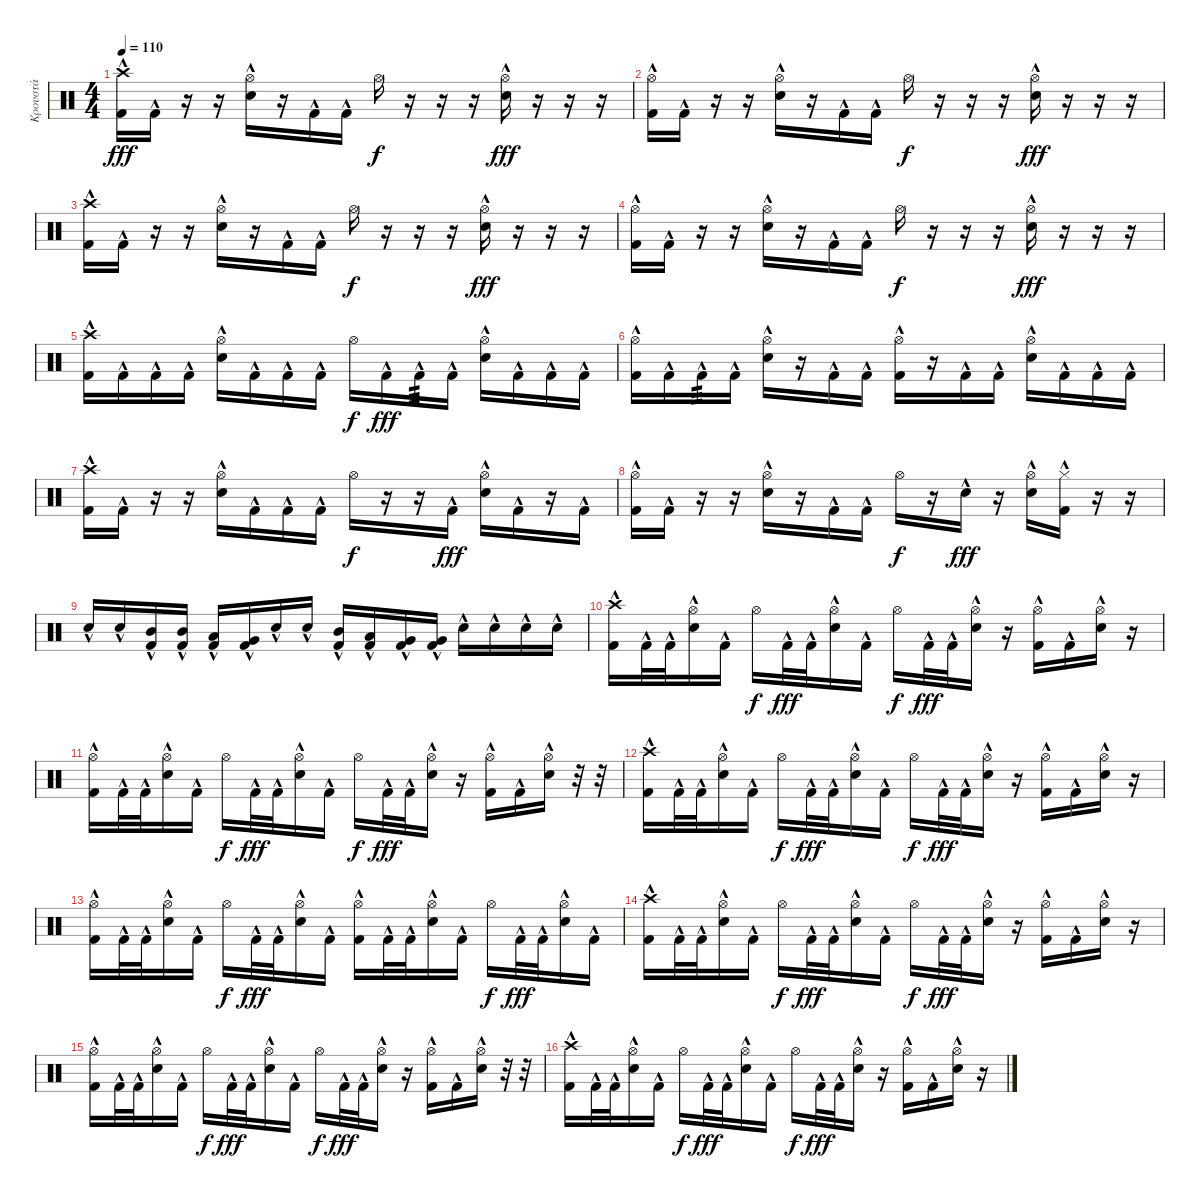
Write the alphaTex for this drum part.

\track ("Κρουστά" "Κρουστά") {instrument percussion}
\staff {score}
\articulation defaults
\ts (4 4)
\tempo 110
\clef neutral
\ks c
("Crash high (hit)" "Kick (hit) 2"{hac}).16{dy fff} "Kick (hit) 2"{hac}.16 r.16 r.16 ("Hi-Hat (open)" "Electric Snare (hit)"{hac}).16 r.16 "Kick (hit) 2"{hac}.16 "Kick (hit) 2"{hac}.16 "Hi-Hat (open)".16{dy f} r.16 r.16 r.16 ("Hi-Hat (open)" "Electric Snare (hit)"{hac}).16{dy fff} r.16 r.16 r.16 |
("Hi-Hat (open)" "Kick (hit) 2"{hac}).16 "Kick (hit) 2"{hac}.16 r.16 r.16 ("Hi-Hat (open)" "Electric Snare (hit)"{hac}).16 r.16 "Kick (hit) 2"{hac}.16 "Kick (hit) 2"{hac}.16 "Hi-Hat (open)".16{dy f} r.16 r.16 r.16 ("Hi-Hat (open)" "Electric Snare (hit)"{hac}).16{dy fff} r.16 r.16 r.16 |
("Crash high (hit)" "Kick (hit) 2"{hac}).16 "Kick (hit) 2"{hac}.16 r.16 r.16 ("Hi-Hat (open)" "Electric Snare (hit)"{hac}).16 r.16 "Kick (hit) 2"{hac}.16 "Kick (hit) 2"{hac}.16 "Hi-Hat (open)".16{dy f} r.16 r.16 r.16 ("Hi-Hat (open)" "Electric Snare (hit)"{hac}).16{dy fff} r.16 r.16 r.16 |
("Hi-Hat (open)" "Kick (hit) 2"{hac}).16 "Kick (hit) 2"{hac}.16 r.16 r.16 ("Hi-Hat (open)" "Electric Snare (hit)"{hac}).16 r.16 "Kick (hit) 2"{hac}.16 "Kick (hit) 2"{hac}.16 "Hi-Hat (open)".16{dy f} r.16 r.16 r.16 ("Hi-Hat (open)" "Electric Snare (hit)"{hac}).16{dy fff} r.16 r.16 r.16 |
("Crash high (hit)" "Kick (hit) 2"{hac}).16 "Kick (hit) 2"{hac}.16 "Kick (hit) 2"{hac}.16 "Kick (hit) 2"{hac}.16 ("Hi-Hat (open)" "Electric Snare (hit)"{hac}).16 "Kick (hit) 2"{hac}.16 "Kick (hit) 2"{hac}.16 "Kick (hit) 2"{hac}.16 "Hi-Hat (open)".16{dy f} "Kick (hit) 2"{hac}.16{dy fff} "Kick (hit) 2"{hac}.16{tp 3} "Kick (hit) 2"{hac}.16 ("Hi-Hat (open)" "Electric Snare (hit)"{hac}).16 "Kick (hit) 2"{hac}.16 "Kick (hit) 2"{hac}.16 "Kick (hit) 2"{hac}.16 |
("Hi-Hat (open)" "Kick (hit) 2"{hac}).16 "Kick (hit) 2"{hac}.16 "Kick (hit) 2"{hac}.16{tp 3} "Kick (hit) 2"{hac}.16 ("Hi-Hat (open)" "Electric Snare (hit)"{hac}).16 r.16 "Kick (hit) 2"{hac}.16 "Kick (hit) 2"{hac}.16 ("Hi-Hat (open)" "Kick (hit) 2"{hac}).16 r.16 "Kick (hit) 2"{hac}.16 "Kick (hit) 2"{hac}.16 ("Hi-Hat (open)" "Electric Snare (hit)"{hac}).16 "Kick (hit) 2"{hac}.16 "Kick (hit) 2"{hac}.16 "Kick (hit) 2"{hac}.16 |
("Crash high (hit)" "Kick (hit) 2"{hac}).16 "Kick (hit) 2"{hac}.16 r.16 r.16 ("Hi-Hat (open)" "Electric Snare (hit)"{hac}).16 "Kick (hit) 2"{hac}.16 "Kick (hit) 2"{hac}.16 "Kick (hit) 2"{hac}.16 "Hi-Hat (open)".16{dy f} r.16 r.16 "Kick (hit) 2"{hac}.16{dy fff} ("Hi-Hat (open)" "Electric Snare (hit)"{hac}).16 "Kick (hit) 2"{hac}.16 r.16 "Kick (hit) 2"{hac}.16 |
("Hi-Hat (open)" "Kick (hit) 2"{hac}).16 "Kick (hit) 2"{hac}.16 r.16 r.16 ("Hi-Hat (open)" "Electric Snare (hit)"{hac}).16 r.16 "Kick (hit) 2"{hac}.16 "Kick (hit) 2"{hac}.16 "Hi-Hat (open)".16{dy f} r.16 "Electric Snare (hit)"{hac}.16{dy fff} r.16 ("Hi-Hat (open)" "Electric Snare (hit)"{hac}).16 ("Hi-Hat (closed)" "Kick (hit) 2"{hac}).16 r.16 r.16 |
"Electric Snare (hit)"{hac}.16 "Electric Snare (hit)"{hac}.16 ("Mid Tom (hit)" "Kick (hit) 2"{hac}).16 ("Mid Tom (hit)" "Kick (hit) 2"{hac}).16 ("Low Tom (hit)" "Kick (hit) 2"{hac}).16 ("Very Low Tom (hit)" "Kick (hit) 2"{hac}).16 "Electric Snare (hit)"{hac}.16 "Electric Snare (hit)"{hac}.16 ("Mid Tom (hit)" "Kick (hit) 2"{hac}).16 ("Low Tom (hit)" "Kick (hit) 2"{hac}).16 ("Very Low Tom (hit)" "Kick (hit) 2"{hac}).16 ("Very Low Tom (hit)" "Kick (hit) 2"{hac}).16 "Electric Snare (hit)"{hac}.16 "Electric Snare (hit)"{hac}.16 "Electric Snare (hit)"{hac}.16 "Electric Snare (hit)"{hac}.16 |
("Crash high (hit)" "Kick (hit) 2"{hac}).16 "Kick (hit) 2"{hac}.32 "Kick (hit) 2"{hac}.32 ("Hi-Hat (open)" "Electric Snare (hit)"{hac}).16 "Kick (hit) 2"{hac}.16 "Hi-Hat (open)".16{dy f} "Kick (hit) 2"{hac}.32{dy fff} "Kick (hit) 2"{hac}.32 ("Hi-Hat (open)" "Electric Snare (hit)"{hac}).16 "Kick (hit) 2"{hac}.16 "Hi-Hat (open)".16{dy f} "Kick (hit) 2"{hac}.32{dy fff} "Kick (hit) 2"{hac}.32 ("Hi-Hat (open)" "Electric Snare (hit)"{hac}).16 r.16 ("Hi-Hat (open)" "Kick (hit) 2"{hac}).16 "Kick (hit) 2"{hac}.16 ("Hi-Hat (open)" "Electric Snare (hit)"{hac}).16 r.16 |
("Hi-Hat (open)" "Kick (hit) 2"{hac}).16 "Kick (hit) 2"{hac}.32 "Kick (hit) 2"{hac}.32 ("Hi-Hat (open)" "Electric Snare (hit)"{hac}).16 "Kick (hit) 2"{hac}.16 "Hi-Hat (open)".16{dy f} "Kick (hit) 2"{hac}.32{dy fff} "Kick (hit) 2"{hac}.32 ("Hi-Hat (open)" "Electric Snare (hit)"{hac}).16 "Kick (hit) 2"{hac}.16 "Hi-Hat (open)".16{dy f} "Kick (hit) 2"{hac}.32{dy fff} "Kick (hit) 2"{hac}.32 ("Hi-Hat (open)" "Electric Snare (hit)"{hac}).16 r.16 ("Hi-Hat (open)" "Kick (hit) 2"{hac}).16 "Kick (hit) 2"{hac}.16 ("Hi-Hat (open)" "Electric Snare (hit)"{hac}).16 r.32 r.32 |
("Crash high (hit)" "Kick (hit) 2"{hac}).16 "Kick (hit) 2"{hac}.32 "Kick (hit) 2"{hac}.32 ("Hi-Hat (open)" "Electric Snare (hit)"{hac}).16 "Kick (hit) 2"{hac}.16 "Hi-Hat (open)".16{dy f} "Kick (hit) 2"{hac}.32{dy fff} "Kick (hit) 2"{hac}.32 ("Hi-Hat (open)" "Electric Snare (hit)"{hac}).16 "Kick (hit) 2"{hac}.16 "Hi-Hat (open)".16{dy f} "Kick (hit) 2"{hac}.32{dy fff} "Kick (hit) 2"{hac}.32 ("Hi-Hat (open)" "Electric Snare (hit)"{hac}).16 r.16 ("Hi-Hat (open)" "Kick (hit) 2"{hac}).16 "Kick (hit) 2"{hac}.16 ("Hi-Hat (open)" "Electric Snare (hit)"{hac}).16 r.16 |
("Hi-Hat (open)" "Kick (hit) 2"{hac}).16 "Kick (hit) 2"{hac}.32 "Kick (hit) 2"{hac}.32 ("Hi-Hat (open)" "Electric Snare (hit)"{hac}).16 "Kick (hit) 2"{hac}.16 "Hi-Hat (open)".16{dy f} "Kick (hit) 2"{hac}.32{dy fff} "Kick (hit) 2"{hac}.32 ("Hi-Hat (open)" "Electric Snare (hit)"{hac}).16 "Kick (hit) 2"{hac}.16 ("Hi-Hat (open)" "Kick (hit) 2"{hac}).16 "Kick (hit) 2"{hac}.32 "Kick (hit) 2"{hac}.32 ("Hi-Hat (open)" "Electric Snare (hit)"{hac}).16 "Kick (hit) 2"{hac}.16 "Hi-Hat (open)".16{dy f} "Kick (hit) 2"{hac}.32{dy fff} "Kick (hit) 2"{hac}.32 ("Hi-Hat (open)" "Electric Snare (hit)"{hac}).16 "Kick (hit) 2"{hac}.16 |
("Crash high (hit)" "Kick (hit) 2"{hac}).16 "Kick (hit) 2"{hac}.32 "Kick (hit) 2"{hac}.32 ("Hi-Hat (open)" "Electric Snare (hit)"{hac}).16 "Kick (hit) 2"{hac}.16 "Hi-Hat (open)".16{dy f} "Kick (hit) 2"{hac}.32{dy fff} "Kick (hit) 2"{hac}.32 ("Hi-Hat (open)" "Electric Snare (hit)"{hac}).16 "Kick (hit) 2"{hac}.16 "Hi-Hat (open)".16{dy f} "Kick (hit) 2"{hac}.32{dy fff} "Kick (hit) 2"{hac}.32 ("Hi-Hat (open)" "Electric Snare (hit)"{hac}).16 r.16 ("Hi-Hat (open)" "Kick (hit) 2"{hac}).16 "Kick (hit) 2"{hac}.16 ("Hi-Hat (open)" "Electric Snare (hit)"{hac}).16 r.16 |
("Hi-Hat (open)" "Kick (hit) 2"{hac}).16 "Kick (hit) 2"{hac}.32 "Kick (hit) 2"{hac}.32 ("Hi-Hat (open)" "Electric Snare (hit)"{hac}).16 "Kick (hit) 2"{hac}.16 "Hi-Hat (open)".16{dy f} "Kick (hit) 2"{hac}.32{dy fff} "Kick (hit) 2"{hac}.32 ("Hi-Hat (open)" "Electric Snare (hit)"{hac}).16 "Kick (hit) 2"{hac}.16 "Hi-Hat (open)".16{dy f} "Kick (hit) 2"{hac}.32{dy fff} "Kick (hit) 2"{hac}.32 ("Hi-Hat (open)" "Electric Snare (hit)"{hac}).16 r.16 ("Hi-Hat (open)" "Kick (hit) 2"{hac}).16 "Kick (hit) 2"{hac}.16 ("Hi-Hat (open)" "Electric Snare (hit)"{hac}).16 r.32 r.32 |
("Crash high (hit)" "Kick (hit) 2"{hac}).16 "Kick (hit) 2"{hac}.32 "Kick (hit) 2"{hac}.32 ("Hi-Hat (open)" "Electric Snare (hit)"{hac}).16 "Kick (hit) 2"{hac}.16 "Hi-Hat (open)".16{dy f} "Kick (hit) 2"{hac}.32{dy fff} "Kick (hit) 2"{hac}.32 ("Hi-Hat (open)" "Electric Snare (hit)"{hac}).16 "Kick (hit) 2"{hac}.16 "Hi-Hat (open)".16{dy f} "Kick (hit) 2"{hac}.32{dy fff} "Kick (hit) 2"{hac}.32 ("Hi-Hat (open)" "Electric Snare (hit)"{hac}).16 r.16 ("Hi-Hat (open)" "Kick (hit) 2"{hac}).16 "Kick (hit) 2"{hac}.16 ("Hi-Hat (open)" "Electric Snare (hit)"{hac}).16 r.16
